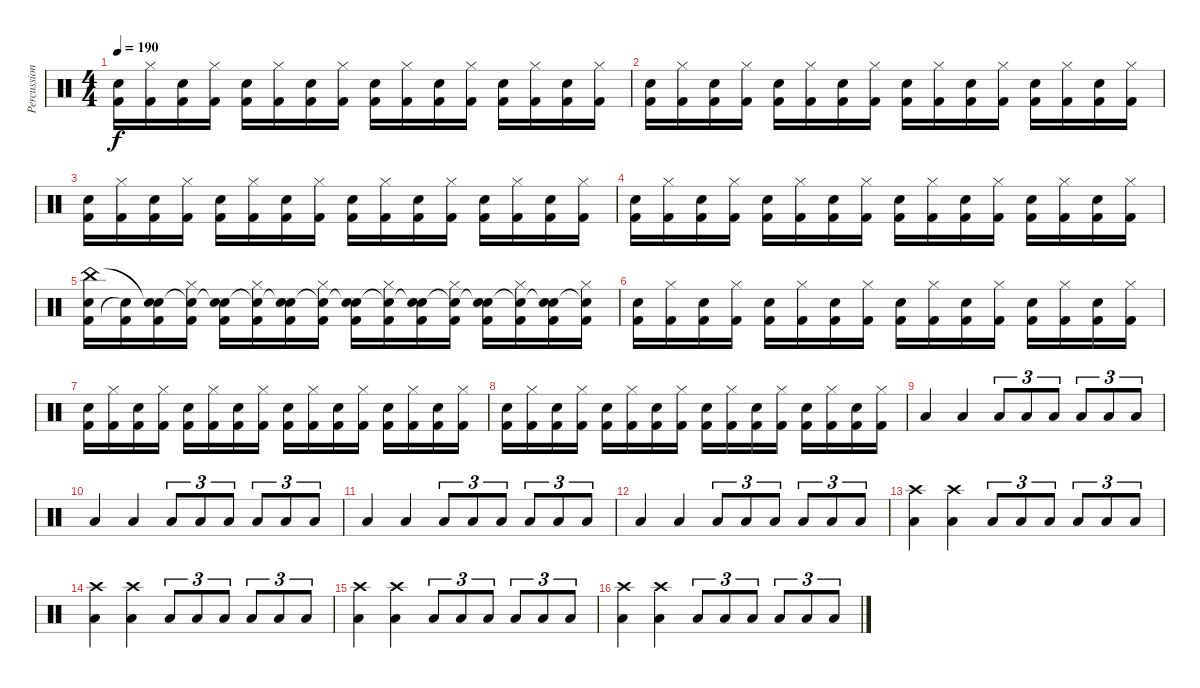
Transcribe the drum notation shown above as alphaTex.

\track ("Percussion" "Percussion") {instrument percussion}
\staff {score}
\articulation defaults
\ts (4 4)
\tempo 190
\clef neutral
\ks c
("Snare (hit) 2" "Kick (hit) 2").16{dy f} ("Hi-Hat (closed)" "Kick (hit) 2").16 ("Snare (hit) 2" "Kick (hit) 2").16 ("Hi-Hat (closed)" "Kick (hit) 2").16 ("Snare (hit) 2" "Kick (hit) 2").16 ("Hi-Hat (closed)" "Kick (hit) 2").16 ("Snare (hit) 2" "Kick (hit) 2").16 ("Hi-Hat (closed)" "Kick (hit) 2").16 ("Snare (hit) 2" "Kick (hit) 2").16 ("Hi-Hat (closed)" "Kick (hit) 2").16 ("Snare (hit) 2" "Kick (hit) 2").16 ("Hi-Hat (closed)" "Kick (hit) 2").16 ("Snare (hit) 2" "Kick (hit) 2").16 ("Hi-Hat (closed)" "Kick (hit) 2").16 ("Snare (hit) 2" "Kick (hit) 2").16 ("Hi-Hat (closed)" "Kick (hit) 2").16 |
("Snare (hit) 2" "Kick (hit) 2").16 ("Hi-Hat (closed)" "Kick (hit) 2").16 ("Snare (hit) 2" "Kick (hit) 2").16 ("Hi-Hat (closed)" "Kick (hit) 2").16 ("Snare (hit) 2" "Kick (hit) 2").16 ("Hi-Hat (closed)" "Kick (hit) 2").16 ("Snare (hit) 2" "Kick (hit) 2").16 ("Hi-Hat (closed)" "Kick (hit) 2").16 ("Snare (hit) 2" "Kick (hit) 2").16 ("Hi-Hat (closed)" "Kick (hit) 2").16 ("Snare (hit) 2" "Kick (hit) 2").16 ("Hi-Hat (closed)" "Kick (hit) 2").16 ("Snare (hit) 2" "Kick (hit) 2").16 ("Hi-Hat (closed)" "Kick (hit) 2").16 ("Snare (hit) 2" "Kick (hit) 2").16 ("Hi-Hat (closed)" "Kick (hit) 2").16 |
("Snare (hit) 2" "Kick (hit) 2").16 ("Hi-Hat (closed)" "Kick (hit) 2").16 ("Snare (hit) 2" "Kick (hit) 2").16 ("Hi-Hat (closed)" "Kick (hit) 2").16 ("Snare (hit) 2" "Kick (hit) 2").16 ("Hi-Hat (closed)" "Kick (hit) 2").16 ("Snare (hit) 2" "Kick (hit) 2").16 ("Hi-Hat (closed)" "Kick (hit) 2").16 ("Snare (hit) 2" "Kick (hit) 2").16 ("Hi-Hat (closed)" "Kick (hit) 2").16 ("Snare (hit) 2" "Kick (hit) 2").16 ("Hi-Hat (closed)" "Kick (hit) 2").16 ("Snare (hit) 2" "Kick (hit) 2").16 ("Hi-Hat (closed)" "Kick (hit) 2").16 ("Snare (hit) 2" "Kick (hit) 2").16 ("Hi-Hat (closed)" "Kick (hit) 2").16 |
("Snare (hit) 2" "Kick (hit) 2").16 ("Hi-Hat (closed)" "Kick (hit) 2").16 ("Snare (hit) 2" "Kick (hit) 2").16 ("Hi-Hat (closed)" "Kick (hit) 2").16 ("Snare (hit) 2" "Kick (hit) 2").16 ("Hi-Hat (closed)" "Kick (hit) 2").16 ("Snare (hit) 2" "Kick (hit) 2").16 ("Hi-Hat (closed)" "Kick (hit) 2").16 ("Snare (hit) 2" "Kick (hit) 2").16 ("Hi-Hat (closed)" "Kick (hit) 2").16 ("Snare (hit) 2" "Kick (hit) 2").16 ("Hi-Hat (closed)" "Kick (hit) 2").16 ("Snare (hit) 2" "Kick (hit) 2").16 ("Hi-Hat (closed)" "Kick (hit) 2").16 ("Snare (hit) 2" "Kick (hit) 2").16 ("Hi-Hat (closed)" "Kick (hit) 2").16 |
("Snare (hit) 2" "Kick (hit) 2" "China (hit)").16 ("Kick (hit) 2" "Snare (hit)"{t}).16 ("Snare (hit) 2" "Kick (hit) 2" "Snare (hit)"{t}).16 ("Hi-Hat (closed)" "Kick (hit) 2" "Snare (hit)"{t}).16 ("Snare (hit) 2" "Kick (hit) 2" "Snare (hit)"{t}).16 ("Hi-Hat (closed)" "Kick (hit) 2" "Snare (hit)"{t}).16 ("Snare (hit) 2" "Kick (hit) 2" "Snare (hit)"{t}).16 ("Hi-Hat (closed)" "Kick (hit) 2" "Snare (hit)"{t}).16 ("Snare (hit) 2" "Kick (hit) 2" "Snare (hit)"{t}).16 ("Hi-Hat (closed)" "Kick (hit) 2" "Snare (hit)"{t}).16 ("Snare (hit) 2" "Kick (hit) 2" "Snare (hit)"{t}).16 ("Hi-Hat (closed)" "Kick (hit) 2" "Snare (hit)"{t}).16 ("Snare (hit) 2" "Kick (hit) 2" "Snare (hit)"{t}).16 ("Hi-Hat (closed)" "Kick (hit) 2" "Snare (hit)"{t}).16 ("Snare (hit) 2" "Kick (hit) 2" "Snare (hit)"{t}).16 ("Hi-Hat (closed)" "Kick (hit) 2" "Snare (hit)"{t}).16 |
("Snare (hit) 2" "Kick (hit) 2").16 ("Hi-Hat (closed)" "Kick (hit) 2").16 ("Snare (hit) 2" "Kick (hit) 2").16 ("Hi-Hat (closed)" "Kick (hit) 2").16 ("Snare (hit) 2" "Kick (hit) 2").16 ("Hi-Hat (closed)" "Kick (hit) 2").16 ("Snare (hit) 2" "Kick (hit) 2").16 ("Hi-Hat (closed)" "Kick (hit) 2").16 ("Snare (hit) 2" "Kick (hit) 2").16 ("Hi-Hat (closed)" "Kick (hit) 2").16 ("Snare (hit) 2" "Kick (hit) 2").16 ("Hi-Hat (closed)" "Kick (hit) 2").16 ("Snare (hit) 2" "Kick (hit) 2").16 ("Hi-Hat (closed)" "Kick (hit) 2").16 ("Snare (hit) 2" "Kick (hit) 2").16 ("Hi-Hat (closed)" "Kick (hit) 2").16 |
("Snare (hit) 2" "Kick (hit) 2").16 ("Hi-Hat (closed)" "Kick (hit) 2").16 ("Snare (hit) 2" "Kick (hit) 2").16 ("Hi-Hat (closed)" "Kick (hit) 2").16 ("Snare (hit) 2" "Kick (hit) 2").16 ("Hi-Hat (closed)" "Kick (hit) 2").16 ("Snare (hit) 2" "Kick (hit) 2").16 ("Hi-Hat (closed)" "Kick (hit) 2").16 ("Snare (hit) 2" "Kick (hit) 2").16 ("Hi-Hat (closed)" "Kick (hit) 2").16 ("Snare (hit) 2" "Kick (hit) 2").16 ("Hi-Hat (closed)" "Kick (hit) 2").16 ("Snare (hit) 2" "Kick (hit) 2").16 ("Hi-Hat (closed)" "Kick (hit) 2").16 ("Snare (hit) 2" "Kick (hit) 2").16 ("Hi-Hat (closed)" "Kick (hit) 2").16 |
("Snare (hit) 2" "Kick (hit) 2").16 ("Hi-Hat (closed)" "Kick (hit) 2").16 ("Snare (hit) 2" "Kick (hit) 2").16 ("Hi-Hat (closed)" "Kick (hit) 2").16 ("Snare (hit) 2" "Kick (hit) 2").16 ("Hi-Hat (closed)" "Kick (hit) 2").16 ("Snare (hit) 2" "Kick (hit) 2").16 ("Hi-Hat (closed)" "Kick (hit) 2").16 ("Snare (hit) 2" "Kick (hit) 2").16 ("Hi-Hat (closed)" "Kick (hit) 2").16 ("Snare (hit) 2" "Kick (hit) 2").16 ("Hi-Hat (closed)" "Kick (hit) 2").16 ("Snare (hit) 2" "Kick (hit) 2").16 ("Hi-Hat (closed)" "Kick (hit) 2").16 ("Snare (hit) 2" "Kick (hit) 2").16 ("Hi-Hat (closed)" "Kick (hit) 2").16 |
"Low Tom (hit)".4{volume 16} "Low Tom (hit)".4 "Low Tom (hit)".8{tu (3 2)} "Low Tom (hit)".8{tu (3 2)} "Low Tom (hit)".8{tu (3 2)} "Low Tom (hit)".8{tu (3 2)} "Low Tom (hit)".8{tu (3 2)} "Low Tom (hit)".8{tu (3 2)} |
"Low Tom (hit)".4 "Low Tom (hit)".4 "Low Tom (hit)".8{tu (3 2)} "Low Tom (hit)".8{tu (3 2)} "Low Tom (hit)".8{tu (3 2)} "Low Tom (hit)".8{tu (3 2)} "Low Tom (hit)".8{tu (3 2)} "Low Tom (hit)".8{tu (3 2)} |
"Low Tom (hit)".4 "Low Tom (hit)".4 "Low Tom (hit)".8{tu (3 2)} "Low Tom (hit)".8{tu (3 2)} "Low Tom (hit)".8{tu (3 2)} "Low Tom (hit)".8{tu (3 2)} "Low Tom (hit)".8{tu (3 2)} "Low Tom (hit)".8{tu (3 2)} |
"Low Tom (hit)".4 "Low Tom (hit)".4 "Low Tom (hit)".8{tu (3 2)} "Low Tom (hit)".8{tu (3 2)} "Low Tom (hit)".8{tu (3 2)} "Low Tom (hit)".8{tu (3 2)} "Low Tom (hit)".8{tu (3 2)} "Low Tom (hit)".8{tu (3 2)} |
("Crash high (hit)" "Low Tom (hit)").4 ("Crash high (hit)" "Low Tom (hit)").4 "Low Tom (hit)".8{tu (3 2)} "Low Tom (hit)".8{tu (3 2)} "Low Tom (hit)".8{tu (3 2)} "Low Tom (hit)".8{tu (3 2)} "Low Tom (hit)".8{tu (3 2)} "Low Tom (hit)".8{tu (3 2)} |
("Crash high (hit)" "Low Tom (hit)").4 ("Crash high (hit)" "Low Tom (hit)").4 "Low Tom (hit)".8{tu (3 2)} "Low Tom (hit)".8{tu (3 2)} "Low Tom (hit)".8{tu (3 2)} "Low Tom (hit)".8{tu (3 2)} "Low Tom (hit)".8{tu (3 2)} "Low Tom (hit)".8{tu (3 2)} |
("Crash high (hit)" "Low Tom (hit)").4 ("Crash high (hit)" "Low Tom (hit)").4 "Low Tom (hit)".8{tu (3 2)} "Low Tom (hit)".8{tu (3 2)} "Low Tom (hit)".8{tu (3 2)} "Low Tom (hit)".8{tu (3 2)} "Low Tom (hit)".8{tu (3 2)} "Low Tom (hit)".8{tu (3 2)} |
("Crash high (hit)" "Low Tom (hit)").4 ("Crash high (hit)" "Low Tom (hit)").4 "Low Tom (hit)".8{tu (3 2)} "Low Tom (hit)".8{tu (3 2)} "Low Tom (hit)".8{tu (3 2)} "Low Tom (hit)".8{tu (3 2)} "Low Tom (hit)".8{tu (3 2)} "Low Tom (hit)".8{tu (3 2)}
